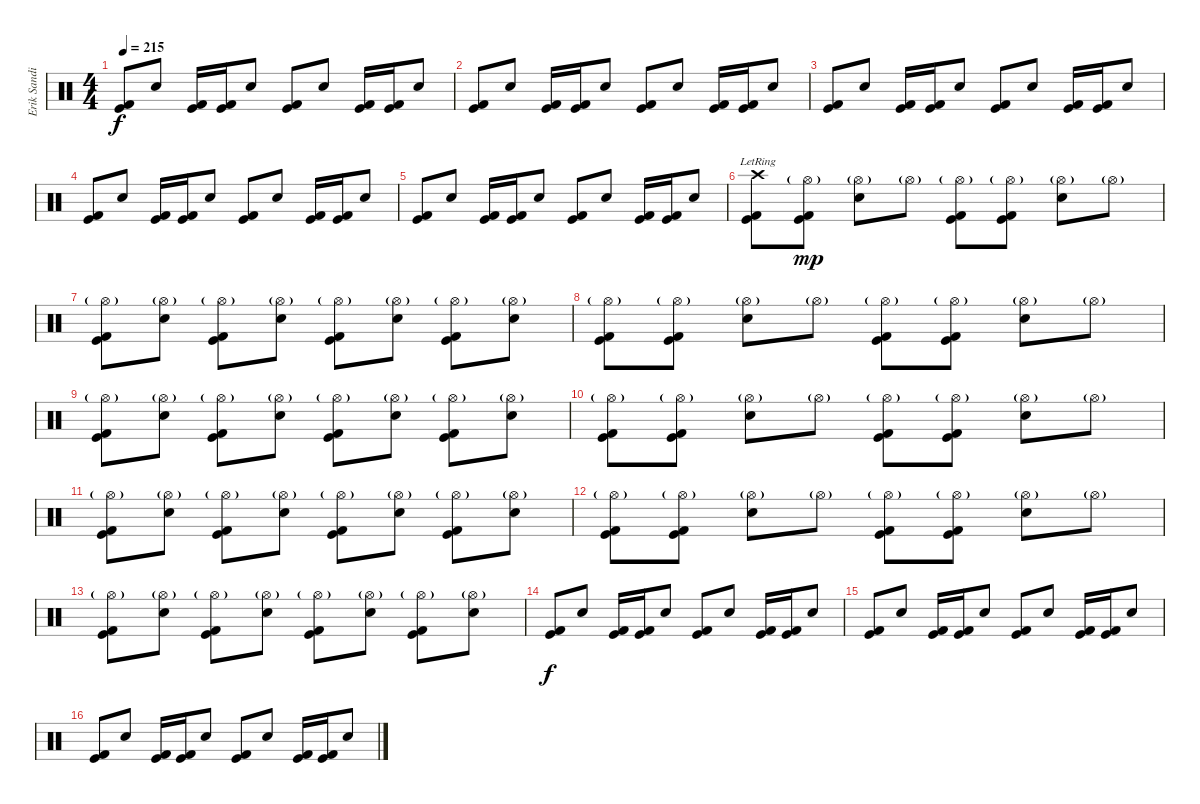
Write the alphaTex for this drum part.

\track ("Erik Sandin" "Erik Sandi") {instrument percussion}
\staff {score}
\articulation defaults
\ts (4 4)
\tempo 215
\clef neutral
\ks c
("Kick (hit) 2" "Kick (hit)").8{dy f} "Electric Snare (hit)".8 ("Kick (hit) 2" "Kick (hit)").16 ("Kick (hit) 2" "Kick (hit)").16 "Electric Snare (hit)".8 ("Kick (hit) 2" "Kick (hit)").8 "Electric Snare (hit)".8 ("Kick (hit) 2" "Kick (hit)").16 ("Kick (hit) 2" "Kick (hit)").16 "Electric Snare (hit)".8 |
("Kick (hit) 2" "Kick (hit)").8 "Electric Snare (hit)".8 ("Kick (hit) 2" "Kick (hit)").16 ("Kick (hit) 2" "Kick (hit)").16 "Electric Snare (hit)".8 ("Kick (hit) 2" "Kick (hit)").8 "Electric Snare (hit)".8 ("Kick (hit) 2" "Kick (hit)").16 ("Kick (hit) 2" "Kick (hit)").16 "Electric Snare (hit)".8 |
("Kick (hit) 2" "Kick (hit)").8 "Electric Snare (hit)".8 ("Kick (hit) 2" "Kick (hit)").16 ("Kick (hit) 2" "Kick (hit)").16 "Electric Snare (hit)".8 ("Kick (hit) 2" "Kick (hit)").8 "Electric Snare (hit)".8 ("Kick (hit) 2" "Kick (hit)").16 ("Kick (hit) 2" "Kick (hit)").16 "Electric Snare (hit)".8 |
("Kick (hit) 2" "Kick (hit)").8 "Electric Snare (hit)".8 ("Kick (hit) 2" "Kick (hit)").16 ("Kick (hit) 2" "Kick (hit)").16 "Electric Snare (hit)".8 ("Kick (hit) 2" "Kick (hit)").8 "Electric Snare (hit)".8 ("Kick (hit) 2" "Kick (hit)").16 ("Kick (hit) 2" "Kick (hit)").16 "Electric Snare (hit)".8 |
("Kick (hit) 2" "Kick (hit)").8 "Electric Snare (hit)".8 ("Kick (hit) 2" "Kick (hit)").16 ("Kick (hit) 2" "Kick (hit)").16 "Electric Snare (hit)".8 ("Kick (hit) 2" "Kick (hit)").8 "Electric Snare (hit)".8 ("Kick (hit) 2" "Kick (hit)").16 ("Kick (hit) 2" "Kick (hit)").16 "Electric Snare (hit)".8 |
("Crash high (hit)"{lr} "Kick (hit) 2" "Kick (hit)").8 ("Hi-Hat (open)"{g} "Kick (hit) 2" "Kick (hit)").8{dy mp} ("Hi-Hat (open)"{g} "Electric Snare (hit)").8 "Hi-Hat (open)"{g}.8 ("Hi-Hat (open)"{g} "Kick (hit) 2" "Kick (hit)").8 ("Hi-Hat (open)"{g} "Kick (hit) 2" "Kick (hit)").8 ("Hi-Hat (open)"{g} "Electric Snare (hit)").8 "Hi-Hat (open)"{g}.8 |
("Hi-Hat (open)"{g} "Kick (hit) 2" "Kick (hit)").8 ("Hi-Hat (open)"{g} "Electric Snare (hit)").8 ("Hi-Hat (open)"{g} "Kick (hit) 2" "Kick (hit)").8 ("Hi-Hat (open)"{g} "Electric Snare (hit)").8 ("Hi-Hat (open)"{g} "Kick (hit) 2" "Kick (hit)").8 ("Hi-Hat (open)"{g} "Electric Snare (hit)").8 ("Hi-Hat (open)"{g} "Kick (hit) 2" "Kick (hit)").8 ("Hi-Hat (open)"{g} "Electric Snare (hit)").8 |
("Hi-Hat (open)"{g} "Kick (hit) 2" "Kick (hit)").8 ("Hi-Hat (open)"{g} "Kick (hit) 2" "Kick (hit)").8 ("Hi-Hat (open)"{g} "Electric Snare (hit)").8 "Hi-Hat (open)"{g}.8 ("Hi-Hat (open)"{g} "Kick (hit) 2" "Kick (hit)").8 ("Hi-Hat (open)"{g} "Kick (hit) 2" "Kick (hit)").8 ("Hi-Hat (open)"{g} "Electric Snare (hit)").8 "Hi-Hat (open)"{g}.8 |
("Hi-Hat (open)"{g} "Kick (hit) 2" "Kick (hit)").8 ("Hi-Hat (open)"{g} "Electric Snare (hit)").8 ("Hi-Hat (open)"{g} "Kick (hit) 2" "Kick (hit)").8 ("Hi-Hat (open)"{g} "Electric Snare (hit)").8 ("Hi-Hat (open)"{g} "Kick (hit) 2" "Kick (hit)").8 ("Hi-Hat (open)"{g} "Electric Snare (hit)").8 ("Hi-Hat (open)"{g} "Kick (hit) 2" "Kick (hit)").8 ("Hi-Hat (open)"{g} "Electric Snare (hit)").8 |
("Hi-Hat (open)"{g} "Kick (hit) 2" "Kick (hit)").8 ("Hi-Hat (open)"{g} "Kick (hit) 2" "Kick (hit)").8 ("Hi-Hat (open)"{g} "Electric Snare (hit)").8 "Hi-Hat (open)"{g}.8 ("Hi-Hat (open)"{g} "Kick (hit) 2" "Kick (hit)").8 ("Hi-Hat (open)"{g} "Kick (hit) 2" "Kick (hit)").8 ("Hi-Hat (open)"{g} "Electric Snare (hit)").8 "Hi-Hat (open)"{g}.8 |
("Hi-Hat (open)"{g} "Kick (hit) 2" "Kick (hit)").8 ("Hi-Hat (open)"{g} "Electric Snare (hit)").8 ("Hi-Hat (open)"{g} "Kick (hit) 2" "Kick (hit)").8 ("Hi-Hat (open)"{g} "Electric Snare (hit)").8 ("Hi-Hat (open)"{g} "Kick (hit) 2" "Kick (hit)").8 ("Hi-Hat (open)"{g} "Electric Snare (hit)").8 ("Hi-Hat (open)"{g} "Kick (hit) 2" "Kick (hit)").8 ("Hi-Hat (open)"{g} "Electric Snare (hit)").8 |
("Hi-Hat (open)"{g} "Kick (hit) 2" "Kick (hit)").8 ("Hi-Hat (open)"{g} "Kick (hit) 2" "Kick (hit)").8 ("Hi-Hat (open)"{g} "Electric Snare (hit)").8 "Hi-Hat (open)"{g}.8 ("Hi-Hat (open)"{g} "Kick (hit) 2" "Kick (hit)").8 ("Hi-Hat (open)"{g} "Kick (hit) 2" "Kick (hit)").8 ("Hi-Hat (open)"{g} "Electric Snare (hit)").8 "Hi-Hat (open)"{g}.8 |
("Hi-Hat (open)"{g} "Kick (hit) 2" "Kick (hit)").8 ("Hi-Hat (open)"{g} "Electric Snare (hit)").8 ("Hi-Hat (open)"{g} "Kick (hit) 2" "Kick (hit)").8 ("Hi-Hat (open)"{g} "Electric Snare (hit)").8 ("Hi-Hat (open)"{g} "Kick (hit) 2" "Kick (hit)").8 ("Hi-Hat (open)"{g} "Electric Snare (hit)").8 ("Hi-Hat (open)"{g} "Kick (hit) 2" "Kick (hit)").8 ("Hi-Hat (open)"{g} "Electric Snare (hit)").8 |
("Kick (hit) 2" "Kick (hit)").8{dy f} "Electric Snare (hit)".8 ("Kick (hit) 2" "Kick (hit)").16 ("Kick (hit) 2" "Kick (hit)").16 "Electric Snare (hit)".8 ("Kick (hit) 2" "Kick (hit)").8 "Electric Snare (hit)".8 ("Kick (hit) 2" "Kick (hit)").16 ("Kick (hit) 2" "Kick (hit)").16 "Electric Snare (hit)".8 |
("Kick (hit) 2" "Kick (hit)").8 "Electric Snare (hit)".8 ("Kick (hit) 2" "Kick (hit)").16 ("Kick (hit) 2" "Kick (hit)").16 "Electric Snare (hit)".8 ("Kick (hit) 2" "Kick (hit)").8 "Electric Snare (hit)".8 ("Kick (hit) 2" "Kick (hit)").16 ("Kick (hit) 2" "Kick (hit)").16 "Electric Snare (hit)".8 |
("Kick (hit) 2" "Kick (hit)").8 "Electric Snare (hit)".8 ("Kick (hit) 2" "Kick (hit)").16 ("Kick (hit) 2" "Kick (hit)").16 "Electric Snare (hit)".8 ("Kick (hit) 2" "Kick (hit)").8 "Electric Snare (hit)".8 ("Kick (hit) 2" "Kick (hit)").16 ("Kick (hit) 2" "Kick (hit)").16 "Electric Snare (hit)".8
